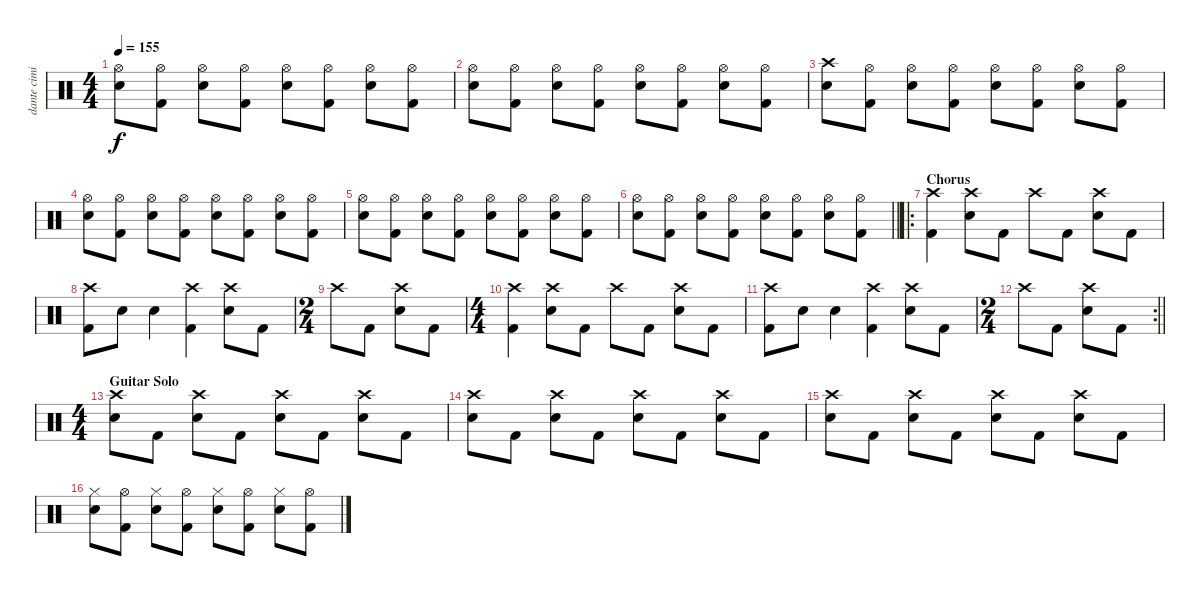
\track ("dante cimino" "dante cimi") {instrument percussion}
\staff {score}
\articulation defaults
\ts (4 4)
\tempo 155
\clef neutral
\ks c
("Hi-Hat (open)" "Electric Snare (hit)").8{dy f} ("Hi-Hat (open)" "Kick (hit) 2").8 ("Hi-Hat (open)" "Electric Snare (hit)").8 ("Hi-Hat (open)" "Kick (hit) 2").8 ("Hi-Hat (open)" "Electric Snare (hit)").8 ("Hi-Hat (open)" "Kick (hit) 2").8 ("Hi-Hat (open)" "Electric Snare (hit)").8 ("Hi-Hat (open)" "Kick (hit) 2").8 |
("Hi-Hat (open)" "Electric Snare (hit)").8 ("Hi-Hat (open)" "Kick (hit) 2").8 ("Hi-Hat (open)" "Electric Snare (hit)").8 ("Hi-Hat (open)" "Kick (hit) 2").8 ("Hi-Hat (open)" "Electric Snare (hit)").8 ("Hi-Hat (open)" "Kick (hit) 2").8 ("Hi-Hat (open)" "Electric Snare (hit)").8 ("Hi-Hat (open)" "Kick (hit) 2").8 |
("Crash high (hit)" "Electric Snare (hit)").8 ("Hi-Hat (open)" "Kick (hit) 2").8 ("Hi-Hat (open)" "Electric Snare (hit)").8 ("Hi-Hat (open)" "Kick (hit) 2").8 ("Hi-Hat (open)" "Electric Snare (hit)").8 ("Hi-Hat (open)" "Kick (hit) 2").8 ("Hi-Hat (open)" "Electric Snare (hit)").8 ("Hi-Hat (open)" "Kick (hit) 2").8 |
("Hi-Hat (open)" "Electric Snare (hit)").8 ("Hi-Hat (open)" "Kick (hit) 2").8 ("Hi-Hat (open)" "Electric Snare (hit)").8 ("Hi-Hat (open)" "Kick (hit) 2").8 ("Hi-Hat (open)" "Electric Snare (hit)").8 ("Hi-Hat (open)" "Kick (hit) 2").8 ("Hi-Hat (open)" "Electric Snare (hit)").8 ("Hi-Hat (open)" "Kick (hit) 2").8 |
("Hi-Hat (open)" "Electric Snare (hit)").8 ("Hi-Hat (open)" "Kick (hit) 2").8 ("Hi-Hat (open)" "Electric Snare (hit)").8 ("Hi-Hat (open)" "Kick (hit) 2").8 ("Hi-Hat (open)" "Electric Snare (hit)").8 ("Hi-Hat (open)" "Kick (hit) 2").8 ("Hi-Hat (open)" "Electric Snare (hit)").8 ("Hi-Hat (open)" "Kick (hit) 2").8 |
\barLineRight lightlight
("Hi-Hat (open)" "Electric Snare (hit)").8 ("Hi-Hat (open)" "Kick (hit) 2").8 ("Hi-Hat (open)" "Electric Snare (hit)").8 ("Hi-Hat (open)" "Kick (hit) 2").8 ("Hi-Hat (open)" "Electric Snare (hit)").8 ("Hi-Hat (open)" "Kick (hit) 2").8 ("Hi-Hat (open)" "Electric Snare (hit)").8 ("Hi-Hat (open)" "Kick (hit) 2").8 |
\ro
\section ("" "Chorus")
("Crash high (hit)" "Kick (hit) 2").4 ("Crash high (hit)" "Electric Snare (hit)").8 "Kick (hit) 2".8 "Crash high (hit)".8 "Kick (hit) 2".8 ("Crash high (hit)" "Electric Snare (hit)").8 "Kick (hit) 2".8 |
("Crash high (hit)" "Kick (hit) 2").8 "Electric Snare (hit)".8 "Electric Snare (hit)".4 ("Crash high (hit)" "Kick (hit) 2").4 ("Crash high (hit)" "Electric Snare (hit)").8 "Kick (hit) 2".8 |
\ts (2 4)
"Crash high (hit)".8 "Kick (hit) 2".8 ("Crash high (hit)" "Electric Snare (hit)").8 "Kick (hit) 2".8 |
\ts (4 4)
("Crash high (hit)" "Kick (hit) 2").4 ("Crash high (hit)" "Electric Snare (hit)").8 "Kick (hit) 2".8 "Crash high (hit)".8 "Kick (hit) 2".8 ("Crash high (hit)" "Electric Snare (hit)").8 "Kick (hit) 2".8 |
("Crash high (hit)" "Kick (hit) 2").8 "Electric Snare (hit)".8 "Electric Snare (hit)".4 ("Crash high (hit)" "Kick (hit) 2").4 ("Crash high (hit)" "Electric Snare (hit)").8 "Kick (hit) 2".8 |
\rc 2
\ts (2 4)
\barLineRight lightlight "Crash high (hit)".8 "Kick (hit) 2".8
("Crash high (hit)" "Electric Snare (hit)").8 "Kick (hit) 2".8 |
\ts (4 4)
\section ("" "Guitar Solo")
("Crash high (hit)" "Electric Snare (hit)").8 "Kick (hit) 2".8 ("Crash high (hit)" "Electric Snare (hit)").8 "Kick (hit) 2".8 ("Crash high (hit)" "Electric Snare (hit)").8 "Kick (hit) 2".8 ("Crash high (hit)" "Electric Snare (hit)").8 "Kick (hit) 2".8 |
("Crash high (hit)" "Electric Snare (hit)").8 "Kick (hit) 2".8 ("Crash high (hit)" "Electric Snare (hit)").8 "Kick (hit) 2".8 ("Crash high (hit)" "Electric Snare (hit)").8 "Kick (hit) 2".8 ("Crash high (hit)" "Electric Snare (hit)").8 "Kick (hit) 2".8 |
("Crash high (hit)" "Electric Snare (hit)").8 "Kick (hit) 2".8 ("Crash high (hit)" "Electric Snare (hit)").8 "Kick (hit) 2".8 ("Crash high (hit)" "Electric Snare (hit)").8 "Kick (hit) 2".8 ("Crash high (hit)" "Electric Snare (hit)").8 "Kick (hit) 2".8 |
("Hi-Hat (closed)" "Electric Snare (hit)").8 ("Hi-Hat (open)" "Kick (hit) 2").8 ("Hi-Hat (closed)" "Electric Snare (hit)").8 ("Hi-Hat (open)" "Kick (hit) 2").8 ("Hi-Hat (closed)" "Electric Snare (hit)").8 ("Hi-Hat (open)" "Kick (hit) 2").8 ("Hi-Hat (closed)" "Electric Snare (hit)").8 ("Hi-Hat (open)" "Kick (hit) 2").8
